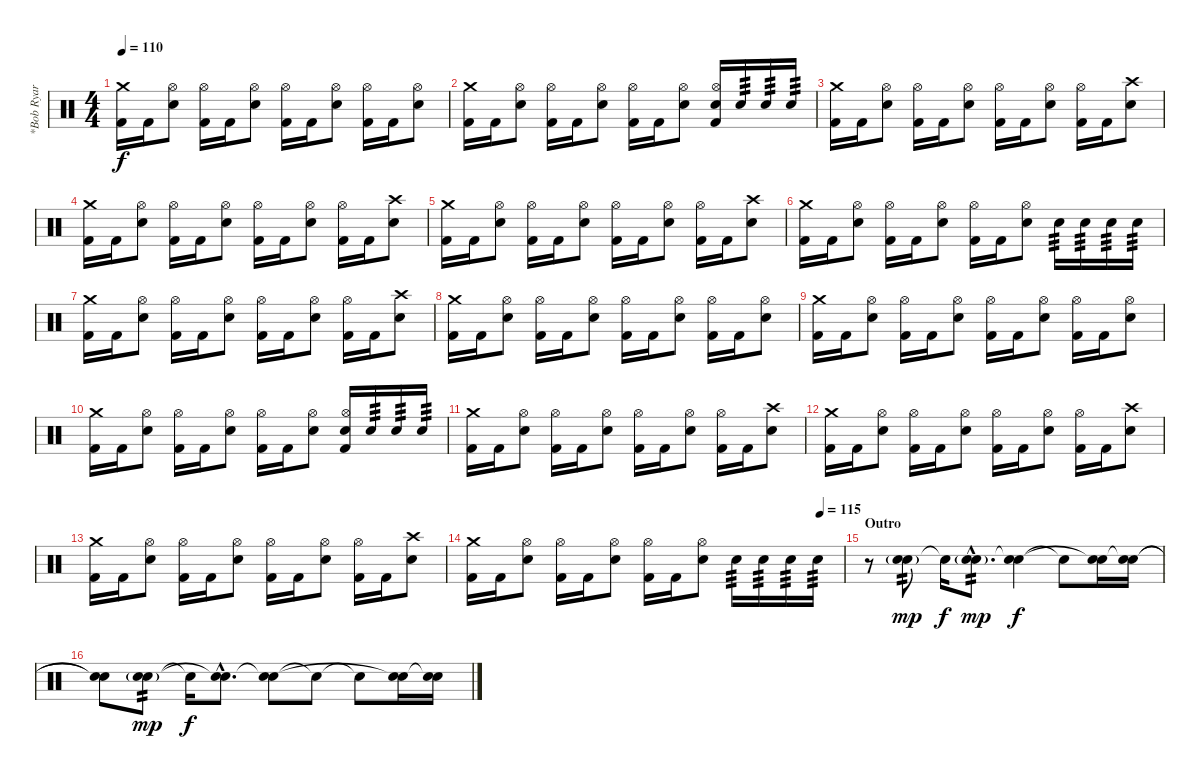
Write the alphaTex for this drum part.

\track ("*Bob Ryar (Drums)" "*Bob Ryar ") {instrument percussion}
\staff {score}
\articulation defaults
\ts (4 4)
\tempo 110
\clef neutral
\ks c
("Crash medium (hit)" "Kick (hit) 2").16{dy f} "Kick (hit) 2".16 ("Hi-Hat (open)" "Electric Snare (hit)").8 ("Hi-Hat (open)" "Kick (hit) 2").16 "Kick (hit) 2".16 ("Hi-Hat (open)" "Electric Snare (hit)").8 ("Hi-Hat (open)" "Kick (hit) 2").16 "Kick (hit) 2".16 ("Hi-Hat (open)" "Electric Snare (hit)").8 ("Hi-Hat (open)" "Kick (hit) 2").16 "Kick (hit) 2".16 ("Hi-Hat (open)" "Electric Snare (hit)").8 |
("Crash medium (hit)" "Kick (hit) 2").16 "Kick (hit) 2".16 ("Hi-Hat (open)" "Electric Snare (hit)").8 ("Hi-Hat (open)" "Kick (hit) 2").16 "Kick (hit) 2".16 ("Hi-Hat (open)" "Electric Snare (hit)").8 ("Hi-Hat (open)" "Kick (hit) 2").16 "Kick (hit) 2".16 ("Hi-Hat (open)" "Electric Snare (hit)").8 ("Hi-Hat (open)" "Electric Snare (hit)" "Kick (hit) 2").16 "Electric Snare (hit)".16{tp 3} "Electric Snare (hit)".16{tp 3} "Electric Snare (hit)".16{tp 3} |
("Crash medium (hit)" "Kick (hit) 2").16 "Kick (hit) 2".16 ("Hi-Hat (open)" "Electric Snare (hit)").8 ("Hi-Hat (open)" "Kick (hit) 2").16 "Kick (hit) 2".16 ("Hi-Hat (open)" "Electric Snare (hit)").8 ("Hi-Hat (open)" "Kick (hit) 2").16 "Kick (hit) 2".16 ("Hi-Hat (open)" "Electric Snare (hit)").8 ("Hi-Hat (open)" "Kick (hit) 2").16 "Kick (hit) 2".16 ("Crash high (hit)" "Electric Snare (hit)").8 |
("Crash medium (hit)" "Kick (hit) 2").16 "Kick (hit) 2".16 ("Hi-Hat (open)" "Electric Snare (hit)").8 ("Hi-Hat (open)" "Kick (hit) 2").16 "Kick (hit) 2".16 ("Hi-Hat (open)" "Electric Snare (hit)").8 ("Hi-Hat (open)" "Kick (hit) 2").16 "Kick (hit) 2".16 ("Hi-Hat (open)" "Electric Snare (hit)").8 ("Hi-Hat (open)" "Kick (hit) 2").16 "Kick (hit) 2".16 ("Crash high (hit)" "Electric Snare (hit)").8 |
("Crash medium (hit)" "Kick (hit) 2").16 "Kick (hit) 2".16 ("Hi-Hat (open)" "Electric Snare (hit)").8 ("Hi-Hat (open)" "Kick (hit) 2").16 "Kick (hit) 2".16 ("Hi-Hat (open)" "Electric Snare (hit)").8 ("Hi-Hat (open)" "Kick (hit) 2").16 "Kick (hit) 2".16 ("Hi-Hat (open)" "Electric Snare (hit)").8 ("Hi-Hat (open)" "Kick (hit) 2").16 "Kick (hit) 2".16 ("Crash high (hit)" "Electric Snare (hit)").8 |
("Crash medium (hit)" "Kick (hit) 2").16 "Kick (hit) 2".16 ("Hi-Hat (open)" "Electric Snare (hit)").8 ("Hi-Hat (open)" "Kick (hit) 2").16 "Kick (hit) 2".16 ("Hi-Hat (open)" "Electric Snare (hit)").8 ("Hi-Hat (open)" "Kick (hit) 2").16 "Kick (hit) 2".16 ("Hi-Hat (open)" "Electric Snare (hit)").8 "Electric Snare (hit)".16{tp 3} "Electric Snare (hit)".16{tp 3} "Electric Snare (hit)".16{tp 3} "Electric Snare (hit)".16{tp 3} |
("Crash medium (hit)" "Kick (hit) 2").16 "Kick (hit) 2".16 ("Hi-Hat (open)" "Electric Snare (hit)").8 ("Hi-Hat (open)" "Kick (hit) 2").16 "Kick (hit) 2".16 ("Hi-Hat (open)" "Electric Snare (hit)").8 ("Hi-Hat (open)" "Kick (hit) 2").16 "Kick (hit) 2".16 ("Hi-Hat (open)" "Electric Snare (hit)").8 ("Hi-Hat (open)" "Kick (hit) 2").16 "Kick (hit) 2".16 ("Crash high (hit)" "Electric Snare (hit)").8 |
("Crash medium (hit)" "Kick (hit) 2").16 "Kick (hit) 2".16 ("Hi-Hat (open)" "Electric Snare (hit)").8 ("Hi-Hat (open)" "Kick (hit) 2").16 "Kick (hit) 2".16 ("Hi-Hat (open)" "Electric Snare (hit)").8 ("Hi-Hat (open)" "Kick (hit) 2").16 "Kick (hit) 2".16 ("Hi-Hat (open)" "Electric Snare (hit)").8 ("Hi-Hat (open)" "Kick (hit) 2").16 "Kick (hit) 2".16 ("Hi-Hat (open)" "Electric Snare (hit)").8 |
("Crash medium (hit)" "Kick (hit) 2").16 "Kick (hit) 2".16 ("Hi-Hat (open)" "Electric Snare (hit)").8 ("Hi-Hat (open)" "Kick (hit) 2").16 "Kick (hit) 2".16 ("Hi-Hat (open)" "Electric Snare (hit)").8 ("Hi-Hat (open)" "Kick (hit) 2").16 "Kick (hit) 2".16 ("Hi-Hat (open)" "Electric Snare (hit)").8 ("Hi-Hat (open)" "Kick (hit) 2").16 "Kick (hit) 2".16 ("Hi-Hat (open)" "Electric Snare (hit)").8 |
("Crash medium (hit)" "Kick (hit) 2").16 "Kick (hit) 2".16 ("Hi-Hat (open)" "Electric Snare (hit)").8 ("Hi-Hat (open)" "Kick (hit) 2").16 "Kick (hit) 2".16 ("Hi-Hat (open)" "Electric Snare (hit)").8 ("Hi-Hat (open)" "Kick (hit) 2").16 "Kick (hit) 2".16 ("Hi-Hat (open)" "Electric Snare (hit)").8 ("Hi-Hat (open)" "Electric Snare (hit)" "Kick (hit) 2").16 "Electric Snare (hit)".16{tp 3} "Electric Snare (hit)".16{tp 3} "Electric Snare (hit)".16{tp 3} |
("Crash medium (hit)" "Kick (hit) 2").16 "Kick (hit) 2".16 ("Hi-Hat (open)" "Electric Snare (hit)").8 ("Hi-Hat (open)" "Kick (hit) 2").16 "Kick (hit) 2".16 ("Hi-Hat (open)" "Electric Snare (hit)").8 ("Hi-Hat (open)" "Kick (hit) 2").16 "Kick (hit) 2".16 ("Hi-Hat (open)" "Electric Snare (hit)").8 ("Hi-Hat (open)" "Kick (hit) 2").16 "Kick (hit) 2".16 ("Crash high (hit)" "Electric Snare (hit)").8 |
("Crash medium (hit)" "Kick (hit) 2").16 "Kick (hit) 2".16 ("Hi-Hat (open)" "Electric Snare (hit)").8 ("Hi-Hat (open)" "Kick (hit) 2").16 "Kick (hit) 2".16 ("Hi-Hat (open)" "Electric Snare (hit)").8 ("Hi-Hat (open)" "Kick (hit) 2").16 "Kick (hit) 2".16 ("Hi-Hat (open)" "Electric Snare (hit)").8 ("Hi-Hat (open)" "Kick (hit) 2").16 "Kick (hit) 2".16 ("Crash high (hit)" "Electric Snare (hit)").8 |
("Crash medium (hit)" "Kick (hit) 2").16 "Kick (hit) 2".16 ("Hi-Hat (open)" "Electric Snare (hit)").8 ("Hi-Hat (open)" "Kick (hit) 2").16 "Kick (hit) 2".16 ("Hi-Hat (open)" "Electric Snare (hit)").8 ("Hi-Hat (open)" "Kick (hit) 2").16 "Kick (hit) 2".16 ("Hi-Hat (open)" "Electric Snare (hit)").8 ("Hi-Hat (open)" "Kick (hit) 2").16 "Kick (hit) 2".16 ("Crash high (hit)" "Electric Snare (hit)").8 |
\tempo (115 0.9375)
("Crash medium (hit)" "Kick (hit) 2").16 "Kick (hit) 2".16 ("Hi-Hat (open)" "Electric Snare (hit)").8 ("Hi-Hat (open)" "Kick (hit) 2").16 "Kick (hit) 2".16 ("Hi-Hat (open)" "Electric Snare (hit)").8 ("Hi-Hat (open)" "Kick (hit) 2").16 "Kick (hit) 2".16 ("Hi-Hat (open)" "Electric Snare (hit)").8 "Electric Snare (hit)".16{tp 3} "Electric Snare (hit)".16{tp 3} "Electric Snare (hit)".16{tp 3} "Electric Snare (hit)".16{tp 3} |
\section ("" "Outro")
r.8 ("Electric Snare (hit)" "Electric Snare (hit)"{g}).8{tp 2 dy mp} "Snare (hit)"{t}.16{dy f} ("Electric Snare (hit)"{hac} "Electric Snare (hit)"{g hac}).8{d tp 2 dy mp} ("Electric Snare (hit)" "Snare (hit)"{t}).4{dy f} "Snare (hit)"{t}.8 ("Electric Snare (hit)" "Snare (hit)"{t}).16 ("Electric Snare (hit)" "Electric Snare (hit)"{t}).16 |
("Electric Snare (hit)"{t} "Snare (hit)"{t}).8 ("Electric Snare (hit)" "Electric Snare (hit)"{g}).8{tp 2 dy mp} "Snare (hit)"{t}.16{dy f} ("Electric Snare (hit)"{hac} "Snare (hit)"{hac t}).8{d} ("Electric Snare (hit)" "Snare (hit)"{t}).8 "Snare (hit)"{t}.8 "Snare (hit)"{t}.8 ("Electric Snare (hit)" "Snare (hit)"{t}).16 ("Electric Snare (hit)" "Snare (hit)"{t}).16
